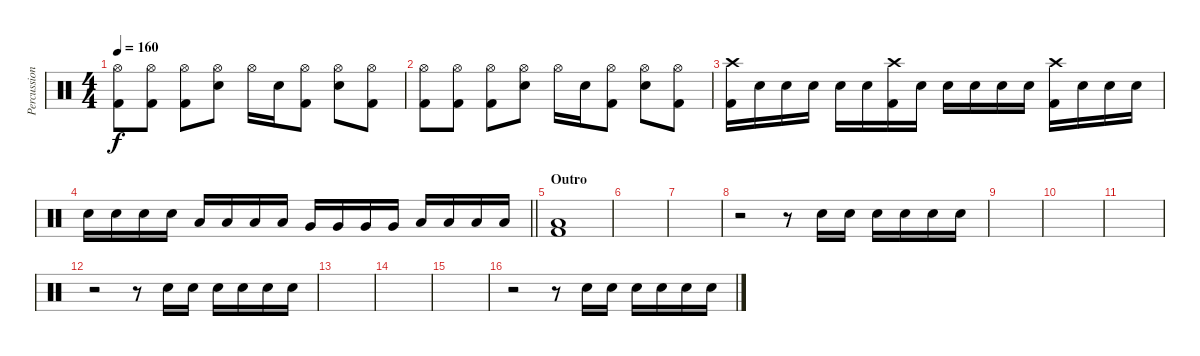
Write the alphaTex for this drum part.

\track ("Percussion" "Percussion") {instrument percussion}
\staff {score}
\articulation defaults
\ts (4 4)
\tempo 160
\clef neutral
\ks c
("Hi-Hat (open)" "Kick (hit) 2").8{dy f} ("Hi-Hat (open)" "Kick (hit) 2").8 ("Hi-Hat (open)" "Kick (hit) 2").8 ("Hi-Hat (open)" "Electric Snare (hit)").8 "Hi-Hat (open)".16 "Electric Snare (hit)".16 ("Hi-Hat (open)" "Kick (hit) 2").8 ("Hi-Hat (open)" "Electric Snare (hit)").8 ("Hi-Hat (open)" "Kick (hit) 2").8 |
("Hi-Hat (open)" "Kick (hit) 2").8 ("Hi-Hat (open)" "Kick (hit) 2").8 ("Hi-Hat (open)" "Kick (hit) 2").8 ("Hi-Hat (open)" "Electric Snare (hit)").8 "Hi-Hat (open)".16 "Electric Snare (hit)".16 ("Hi-Hat (open)" "Kick (hit) 2").8 ("Hi-Hat (open)" "Electric Snare (hit)").8 ("Hi-Hat (open)" "Kick (hit) 2").8 |
("Crash high (hit)" "Kick (hit) 2").16 "Electric Snare (hit)".16 "Electric Snare (hit)".16 "Electric Snare (hit)".16 "Electric Snare (hit)".16 "Electric Snare (hit)".16 ("Crash high (hit)" "Kick (hit) 2").16 "Electric Snare (hit)".16 "Electric Snare (hit)".16 "Electric Snare (hit)".16 "Electric Snare (hit)".16 "Electric Snare (hit)".16 ("Crash high (hit)" "Kick (hit) 2").16 "Electric Snare (hit)".16 "Electric Snare (hit)".16 "Electric Snare (hit)".16 |
\barLineRight lightlight "Electric Snare (hit)".16 "Electric Snare (hit)".16 "Electric Snare (hit)".16 "Electric Snare (hit)".16 "Low Tom (hit)".16 "Low Tom (hit)".16 "Low Tom (hit)".16 "Low Tom (hit)".16 "Very Low Tom (hit)".16 "Very Low Tom (hit)".16 "Very Low Tom (hit)".16 "Very Low Tom (hit)".16 "Low Floor Tom (hit)".16 "Low Floor Tom (hit)".16 "Low Floor Tom (hit)".16 "Low Floor Tom (hit)".16
|
\section ("" "Outro")
("Low Floor Tom (hit)" "Kick (hit) 2").1 |
|
|
r.2 r.8 "Electric Snare (hit)".16 "Electric Snare (hit)".16 "Electric Snare (hit)".16 "Electric Snare (hit)".16 "Electric Snare (hit)".16 "Electric Snare (hit)".16 |
|
|
|
r.2 r.8 "Electric Snare (hit)".16 "Electric Snare (hit)".16 "Electric Snare (hit)".16 "Electric Snare (hit)".16 "Electric Snare (hit)".16 "Electric Snare (hit)".16 |
|
|
|
r.2 r.8 "Electric Snare (hit)".16 "Electric Snare (hit)".16 "Electric Snare (hit)".16 "Electric Snare (hit)".16 "Electric Snare (hit)".16 "Electric Snare (hit)".16
